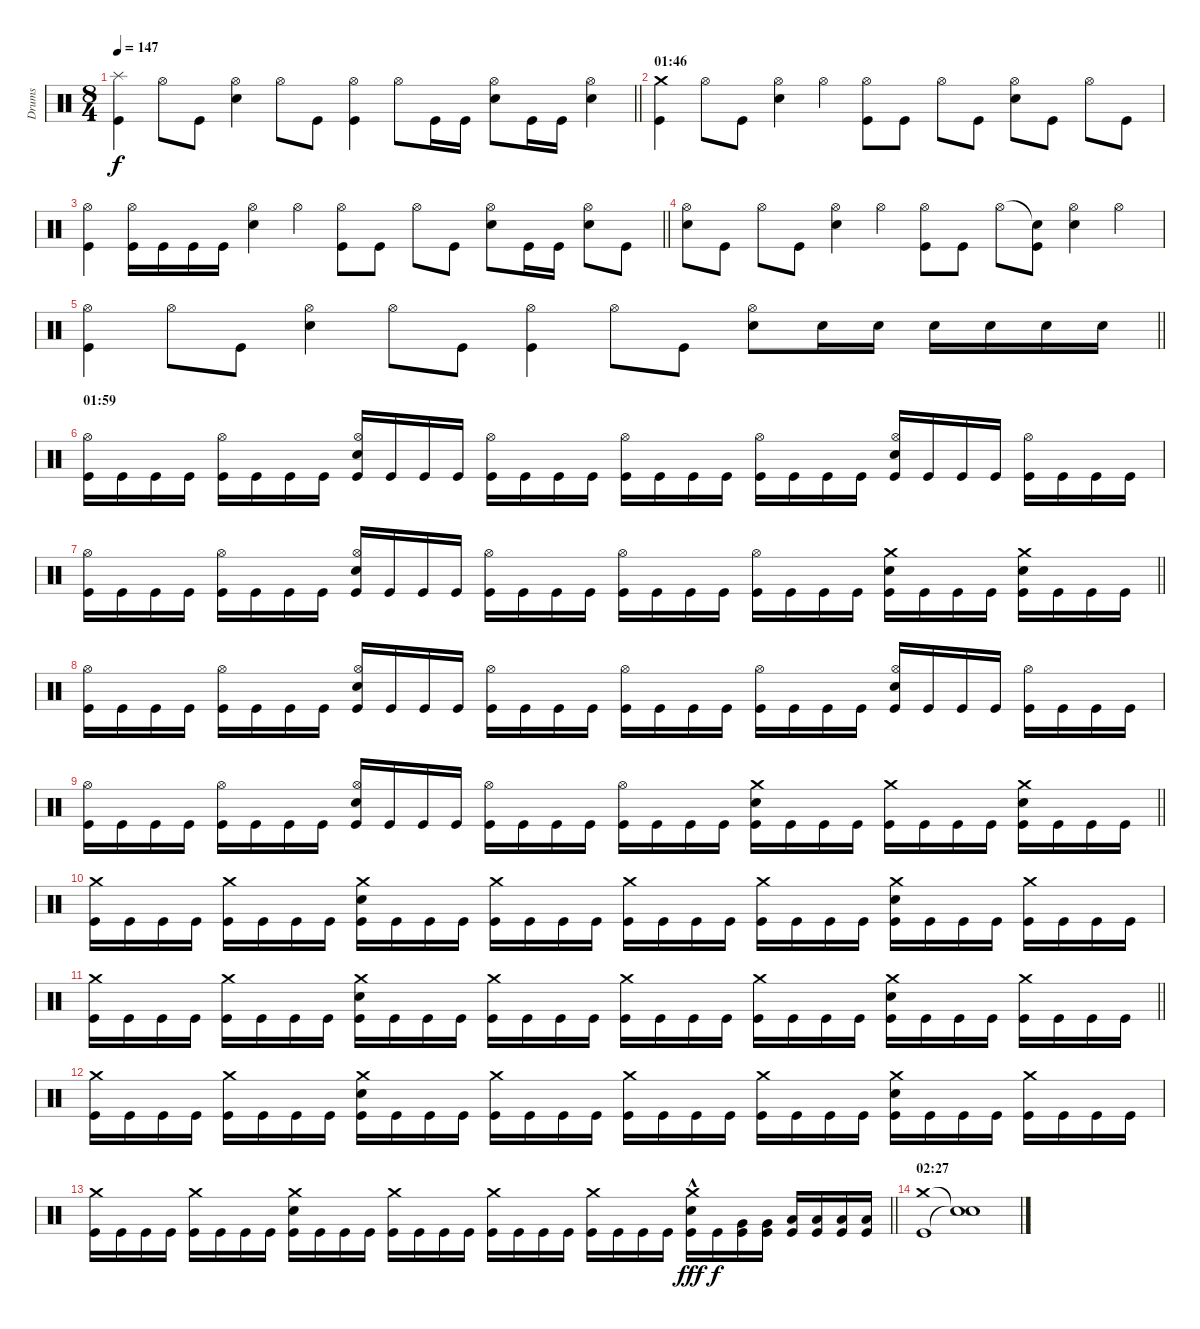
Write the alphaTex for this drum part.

\track ("Drums" "Drums") {instrument percussion}
\staff {score}
\articulation defaults
\ts (8 4)
\tempo 147
\clef neutral
\barLineRight lightlight
\ks c
("Splash (hit)" "Kick (hit)").4{dy f} "Hi-Hat (open)".8 "Kick (hit)".8 ("Hi-Hat (open)" "Electric Snare (hit)").4 "Hi-Hat (open)".8 "Kick (hit)".8 ("Hi-Hat (open)" "Kick (hit)").4 "Hi-Hat (open)".8 "Kick (hit)".16 "Kick (hit)".16 ("Hi-Hat (open)" "Electric Snare (hit)").8 "Kick (hit)".16 "Kick (hit)".16 ("Hi-Hat (open)" "Electric Snare (hit)").4 |
\section ("" "01:46")
("Crash medium (hit)" "Kick (hit)").4 "Hi-Hat (open)".8 "Kick (hit)".8 ("Hi-Hat (open)" "Electric Snare (hit)").4 "Hi-Hat (open)".4 ("Hi-Hat (open)" "Kick (hit)").8 "Kick (hit)".8 "Hi-Hat (open)".8 "Kick (hit)".8 ("Hi-Hat (open)" "Electric Snare (hit)").8 "Kick (hit)".8 "Hi-Hat (open)".8 "Kick (hit)".8 |
\barLineRight lightlight
("Hi-Hat (open)" "Kick (hit)").4 ("Hi-Hat (open)" "Kick (hit)").16 "Kick (hit)".16 "Kick (hit)".16 "Kick (hit)".16 ("Hi-Hat (open)" "Electric Snare (hit)").4 "Hi-Hat (open)".4 ("Hi-Hat (open)" "Kick (hit)").8 "Kick (hit)".8 "Hi-Hat (open)".8 "Kick (hit)".8 ("Hi-Hat (open)" "Electric Snare (hit)").8 "Kick (hit)".16 "Kick (hit)".16 ("Hi-Hat (open)" "Electric Snare (hit)").8 "Kick (hit)".8 |
("Hi-Hat (open)" "Electric Snare (hit)").8 "Kick (hit)".8 "Hi-Hat (open)".8 "Kick (hit)".8 ("Hi-Hat (open)" "Electric Snare (hit)").4 "Hi-Hat (open)".4 ("Hi-Hat (open)" "Kick (hit)").8 "Kick (hit)".8 "Hi-Hat (open)".8 ("Snare (hit)"{t} "Kick (hit)").8 ("Hi-Hat (open)" "Electric Snare (hit)").4 "Hi-Hat (open)".4 |
\barLineRight lightlight
("Hi-Hat (open)" "Kick (hit)").4 "Hi-Hat (open)".8 "Kick (hit)".8 ("Hi-Hat (open)" "Electric Snare (hit)").4 "Hi-Hat (open)".8 "Kick (hit)".8 ("Hi-Hat (open)" "Kick (hit)").4 "Hi-Hat (open)".8 "Kick (hit)".8 ("Hi-Hat (open)" "Electric Snare (hit)").8 "Electric Snare (hit)".16 "Electric Snare (hit)".16 "Electric Snare (hit)".16 "Electric Snare (hit)".16 "Electric Snare (hit)".16 "Electric Snare (hit)".16 |
\section ("" "01:59")
("Hi-Hat (open)" "Kick (hit)").16 "Kick (hit)".16 "Kick (hit)".16 "Kick (hit)".16 ("Hi-Hat (open)" "Kick (hit)").16 "Kick (hit)".16 "Kick (hit)".16 "Kick (hit)".16 ("Hi-Hat (open)" "Electric Snare (hit)" "Kick (hit)").16 "Kick (hit)".16 "Kick (hit)".16 "Kick (hit)".16 ("Hi-Hat (open)" "Kick (hit)").16 "Kick (hit)".16 "Kick (hit)".16 "Kick (hit)".16 ("Hi-Hat (open)" "Kick (hit)").16 "Kick (hit)".16 "Kick (hit)".16 "Kick (hit)".16 ("Hi-Hat (open)" "Kick (hit)").16 "Kick (hit)".16 "Kick (hit)".16 "Kick (hit)".16 ("Hi-Hat (open)" "Electric Snare (hit)" "Kick (hit)").16 "Kick (hit)".16 "Kick (hit)".16 "Kick (hit)".16 ("Hi-Hat (open)" "Kick (hit)").16 "Kick (hit)".16 "Kick (hit)".16 "Kick (hit)".16 |
\barLineRight lightlight
("Hi-Hat (open)" "Kick (hit)").16 "Kick (hit)".16 "Kick (hit)".16 "Kick (hit)".16 ("Hi-Hat (open)" "Kick (hit)").16 "Kick (hit)".16 "Kick (hit)".16 "Kick (hit)".16 ("Hi-Hat (open)" "Electric Snare (hit)" "Kick (hit)").16 "Kick (hit)".16 "Kick (hit)".16 "Kick (hit)".16 ("Hi-Hat (open)" "Kick (hit)").16 "Kick (hit)".16 "Kick (hit)".16 "Kick (hit)".16 ("Hi-Hat (open)" "Kick (hit)").16 "Kick (hit)".16 "Kick (hit)".16 "Kick (hit)".16 ("Hi-Hat (open)" "Kick (hit)").16 "Kick (hit)".16 "Kick (hit)".16 "Kick (hit)".16 ("Crash medium (hit)" "Electric Snare (hit)" "Kick (hit)").16 "Kick (hit)".16 "Kick (hit)".16 "Kick (hit)".16 ("Crash medium (hit)" "Electric Snare (hit)" "Kick (hit)").16 "Kick (hit)".16 "Kick (hit)".16 "Kick (hit)".16 |
("Hi-Hat (open)" "Kick (hit)").16 "Kick (hit)".16 "Kick (hit)".16 "Kick (hit)".16 ("Hi-Hat (open)" "Kick (hit)").16 "Kick (hit)".16 "Kick (hit)".16 "Kick (hit)".16 ("Hi-Hat (open)" "Electric Snare (hit)" "Kick (hit)").16 "Kick (hit)".16 "Kick (hit)".16 "Kick (hit)".16 ("Hi-Hat (open)" "Kick (hit)").16 "Kick (hit)".16 "Kick (hit)".16 "Kick (hit)".16 ("Hi-Hat (open)" "Kick (hit)").16 "Kick (hit)".16 "Kick (hit)".16 "Kick (hit)".16 ("Hi-Hat (open)" "Kick (hit)").16 "Kick (hit)".16 "Kick (hit)".16 "Kick (hit)".16 ("Hi-Hat (open)" "Electric Snare (hit)" "Kick (hit)").16 "Kick (hit)".16 "Kick (hit)".16 "Kick (hit)".16 ("Hi-Hat (open)" "Kick (hit)").16 "Kick (hit)".16 "Kick (hit)".16 "Kick (hit)".16 |
\barLineRight lightlight
("Hi-Hat (open)" "Kick (hit)").16 "Kick (hit)".16 "Kick (hit)".16 "Kick (hit)".16 ("Hi-Hat (open)" "Kick (hit)").16 "Kick (hit)".16 "Kick (hit)".16 "Kick (hit)".16 ("Hi-Hat (open)" "Electric Snare (hit)" "Kick (hit)").16 "Kick (hit)".16 "Kick (hit)".16 "Kick (hit)".16 ("Hi-Hat (open)" "Kick (hit)").16 "Kick (hit)".16 "Kick (hit)".16 "Kick (hit)".16 ("Hi-Hat (open)" "Kick (hit)").16 "Kick (hit)".16 "Kick (hit)".16 "Kick (hit)".16 ("Crash medium (hit)" "Electric Snare (hit)" "Kick (hit)").16 "Kick (hit)".16 "Kick (hit)".16 "Kick (hit)".16 ("Crash medium (hit)" "Kick (hit)").16 "Kick (hit)".16 "Kick (hit)".16 "Kick (hit)".16 ("Crash medium (hit)" "Electric Snare (hit)" "Kick (hit)").16 "Kick (hit)".16 "Kick (hit)".16 "Kick (hit)".16 |
("Crash medium (hit)" "Kick (hit)").16 "Kick (hit)".16 "Kick (hit)".16 "Kick (hit)".16 ("Crash medium (hit)" "Kick (hit)").16 "Kick (hit)".16 "Kick (hit)".16 "Kick (hit)".16 ("Crash medium (hit)" "Electric Snare (hit)" "Kick (hit)").16 "Kick (hit)".16 "Kick (hit)".16 "Kick (hit)".16 ("Crash medium (hit)" "Kick (hit)").16 "Kick (hit)".16 "Kick (hit)".16 "Kick (hit)".16 ("Crash medium (hit)" "Kick (hit)").16 "Kick (hit)".16 "Kick (hit)".16 "Kick (hit)".16 ("Crash medium (hit)" "Kick (hit)").16 "Kick (hit)".16 "Kick (hit)".16 "Kick (hit)".16 ("Crash medium (hit)" "Electric Snare (hit)" "Kick (hit)").16 "Kick (hit)".16 "Kick (hit)".16 "Kick (hit)".16 ("Crash medium (hit)" "Kick (hit)").16 "Kick (hit)".16 "Kick (hit)".16 "Kick (hit)".16 |
\barLineRight lightlight
("Crash medium (hit)" "Kick (hit)").16 "Kick (hit)".16 "Kick (hit)".16 "Kick (hit)".16 ("Crash medium (hit)" "Kick (hit)").16 "Kick (hit)".16 "Kick (hit)".16 "Kick (hit)".16 ("Crash medium (hit)" "Electric Snare (hit)" "Kick (hit)").16 "Kick (hit)".16 "Kick (hit)".16 "Kick (hit)".16 ("Crash medium (hit)" "Kick (hit)").16 "Kick (hit)".16 "Kick (hit)".16 "Kick (hit)".16 ("Crash medium (hit)" "Kick (hit)").16 "Kick (hit)".16 "Kick (hit)".16 "Kick (hit)".16 ("Crash medium (hit)" "Kick (hit)").16 "Kick (hit)".16 "Kick (hit)".16 "Kick (hit)".16 ("Crash medium (hit)" "Electric Snare (hit)" "Kick (hit)").16 "Kick (hit)".16 "Kick (hit)".16 "Kick (hit)".16 ("Crash medium (hit)" "Kick (hit)").16 "Kick (hit)".16 "Kick (hit)".16 "Kick (hit)".16 |
("Crash medium (hit)" "Kick (hit)").16 "Kick (hit)".16 "Kick (hit)".16 "Kick (hit)".16 ("Crash medium (hit)" "Kick (hit)").16 "Kick (hit)".16 "Kick (hit)".16 "Kick (hit)".16 ("Crash medium (hit)" "Electric Snare (hit)" "Kick (hit)").16 "Kick (hit)".16 "Kick (hit)".16 "Kick (hit)".16 ("Crash medium (hit)" "Kick (hit)").16 "Kick (hit)".16 "Kick (hit)".16 "Kick (hit)".16 ("Crash medium (hit)" "Kick (hit)").16 "Kick (hit)".16 "Kick (hit)".16 "Kick (hit)".16 ("Crash medium (hit)" "Kick (hit)").16 "Kick (hit)".16 "Kick (hit)".16 "Kick (hit)".16 ("Crash medium (hit)" "Electric Snare (hit)" "Kick (hit)").16 "Kick (hit)".16 "Kick (hit)".16 "Kick (hit)".16 ("Crash medium (hit)" "Kick (hit)").16 "Kick (hit)".16 "Kick (hit)".16 "Kick (hit)".16 |
\barLineRight lightlight
("Crash medium (hit)" "Kick (hit)").16 "Kick (hit)".16 "Kick (hit)".16 "Kick (hit)".16 ("Crash medium (hit)" "Kick (hit)").16 "Kick (hit)".16 "Kick (hit)".16 "Kick (hit)".16 ("Crash medium (hit)" "Electric Snare (hit)" "Kick (hit)").16 "Kick (hit)".16 "Kick (hit)".16 "Kick (hit)".16 ("Crash medium (hit)" "Kick (hit)").16 "Kick (hit)".16 "Kick (hit)".16 "Kick (hit)".16 ("Crash medium (hit)" "Kick (hit)").16 "Kick (hit)".16 "Kick (hit)".16 "Kick (hit)".16 ("Crash medium (hit)" "Kick (hit)").16 "Kick (hit)".16 "Kick (hit)".16 "Kick (hit)".16 ("Crash medium (hit)"{hac} "Electric Snare (hit)" "Kick (hit)").16{dy fff} "Kick (hit)".16{dy f} ("Very Low Tom (hit)" "Kick (hit)").16 ("Very Low Tom (hit)" "Kick (hit)").16 ("Low Floor Tom (hit)" "Kick (hit)").16 ("Low Floor Tom (hit)" "Kick (hit)").16 ("Low Floor Tom (hit)" "Kick (hit)").16 ("Low Floor Tom (hit)" "Kick (hit)").16 |
\section ("" "02:27")
("Crash medium (hit)" "Kick (hit)").1 ("Snare (hit)"{t} "Snare (hit)"{t}).1
